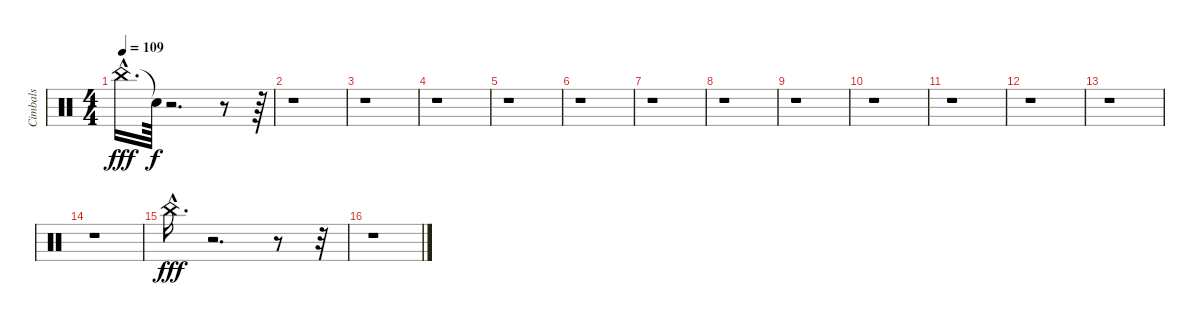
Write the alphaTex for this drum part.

\track ("Cimbals" "Cimbals") {instrument percussion}
\staff {score}
\articulation defaults
\ts (4 4)
\tempo 109
\clef neutral
\ks c "China (choke)"{hac}.16{d dy fff} "Snare (hit)"{t}.64{dy f}
r.2{d} r.8 r.64 |
r.1 |
r.1 |
r.1 |
r.1 |
r.1 |
r.1 |
r.1 |
r.1 |
r.1 |
r.1 |
r.1 |
r.1 |
r.1 |
"China (choke)"{hac}.16{d dy fff} r.2{d} r.8 r.32 |
r.1
